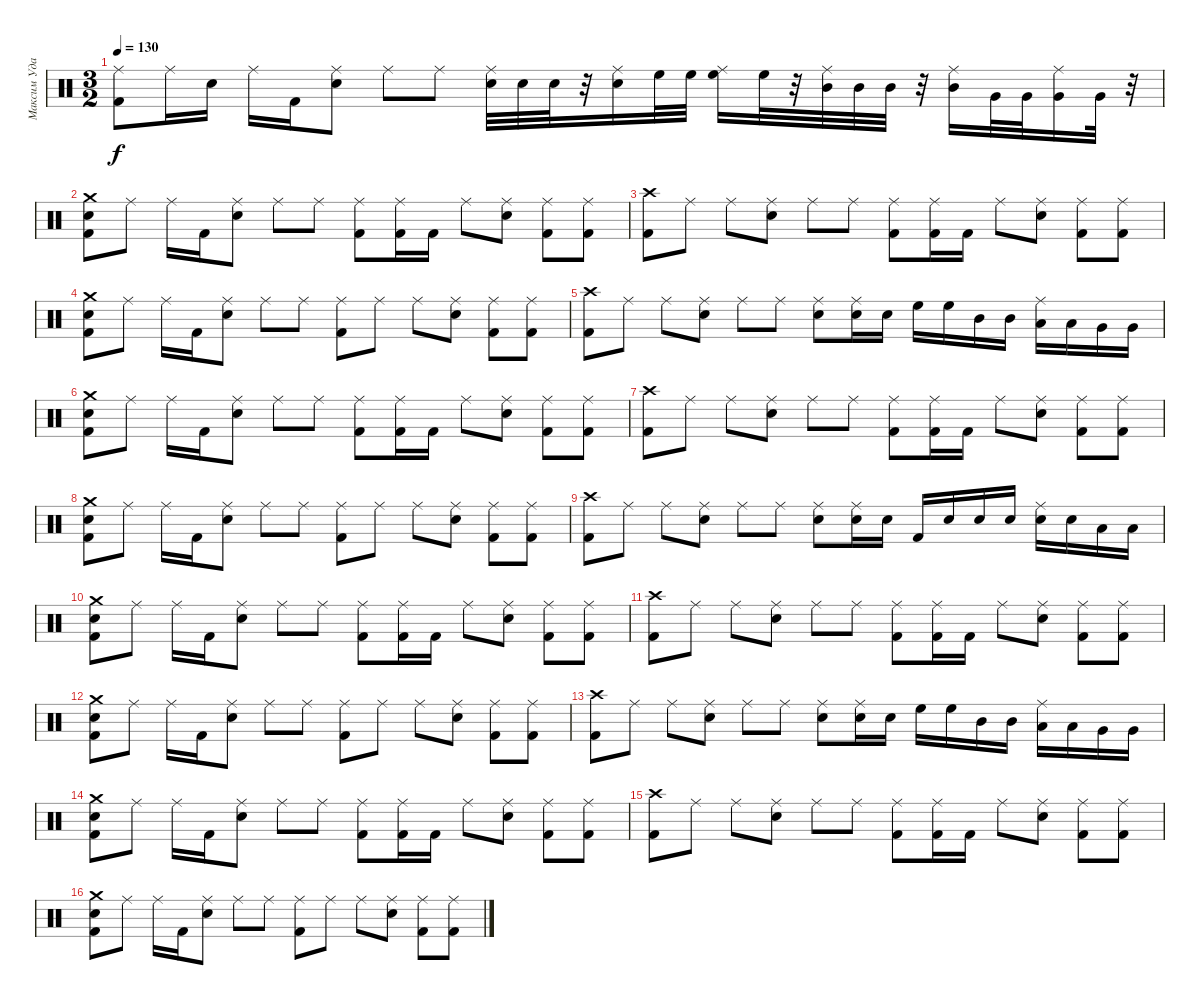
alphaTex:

\track ("Максим Удалов" "Максим Уда") {instrument percussion}
\staff {score}
\articulation defaults
\ts (3 2)
\tempo 130
\clef neutral
\ks c
("Kick (hit) 2" "Ride (middle)").8{dy f} "Ride (middle)".16 "Electric Snare (hit)".16 "Ride (middle)".16 "Kick (hit) 2".16 ("Electric Snare (hit)" "Ride (middle)").8 "Ride (middle)".8 "Ride (middle)".8 ("Electric Snare (hit)" "Ride (middle)").32 "Electric Snare (hit)".32 "Electric Snare (hit)".32 r.32 ("Ride (middle)" "Electric Snare (hit)").16 "High Floor Tom (hit)".32 "High Floor Tom (hit)".32 ("High Floor Tom (hit)" "Ride (middle)").16 "High Floor Tom (hit)".32 r.32 ("Mid Tom (hit)" "Ride (middle)").32 "Mid Tom (hit)".32 "Mid Tom (hit)".32 r.32 ("Ride (middle)" "Mid Tom (hit)").16 "Very Low Tom (hit)".32 "Very Low Tom (hit)".32 ("Ride (middle)" "Very Low Tom (hit)").16 "Very Low Tom (hit)".32 r.32 |
("Kick (hit) 2" "Electric Snare (hit)" "Crash medium (hit)").8 "Ride (middle)".8 "Ride (middle)".16 "Kick (hit) 2".16 ("Electric Snare (hit)" "Ride (middle)").8 "Ride (middle)".8 "Ride (middle)".8 ("Kick (hit) 2" "Ride (middle)").8 ("Ride (middle)" "Kick (hit) 2").16 "Kick (hit) 2".16 "Ride (middle)".8 ("Electric Snare (hit)" "Ride (middle)").8 ("Ride (middle)" "Kick (hit) 2").8 ("Ride (middle)" "Kick (hit) 2").8 |
("Kick (hit) 2" "Crash high (hit)").8 "Ride (middle)".8 "Ride (middle)".8 ("Electric Snare (hit)" "Ride (middle)").8 "Ride (middle)".8 "Ride (middle)".8 ("Kick (hit) 2" "Ride (middle)").8 ("Kick (hit) 2" "Ride (middle)").16 "Kick (hit) 2".16 "Ride (middle)".8 ("Ride (middle)" "Electric Snare (hit)").8 ("Kick (hit) 2" "Ride (middle)").8 ("Kick (hit) 2" "Ride (middle)").8 |
("Electric Snare (hit)" "Crash medium (hit)" "Kick (hit) 2").8 "Ride (middle)".8 "Ride (middle)".16 "Kick (hit) 2".16 ("Ride (middle)" "Electric Snare (hit)").8 "Ride (middle)".8 "Ride (middle)".8 ("Kick (hit) 2" "Ride (middle)").8 "Ride (middle)".8 "Ride (middle)".8 ("Ride (middle)" "Electric Snare (hit)").8 ("Ride (middle)" "Kick (hit) 2").8 ("Ride (middle)" "Kick (hit) 2").8 |
("Kick (hit) 2" "Crash high (hit)").8 "Ride (middle)".8 "Ride (middle)".8 ("Electric Snare (hit)" "Ride (middle)").8 "Ride (middle)".8 "Ride (middle)".8 ("Electric Snare (hit)" "Ride (middle)").8 ("Ride (middle)" "Electric Snare (hit)").16 "Electric Snare (hit)".16 "High Floor Tom (hit)".16 "High Floor Tom (hit)".16 "Mid Tom (hit)".16 "Mid Tom (hit)".16 ("Ride (middle)" "Low Tom (hit)").16 "Low Tom (hit)".16 "Very Low Tom (hit)".16 "Very Low Tom (hit)".16 |
("Crash medium (hit)" "Kick (hit) 2" "Electric Snare (hit)").8 "Ride (middle)".8 "Ride (middle)".16 "Kick (hit) 2".16 ("Ride (middle)" "Electric Snare (hit)").8 "Ride (middle)".8 "Ride (middle)".8 ("Kick (hit) 2" "Ride (middle)").8 ("Ride (middle)" "Kick (hit) 2").16 "Kick (hit) 2".16 "Ride (middle)".8 ("Electric Snare (hit)" "Ride (middle)").8 ("Kick (hit) 2" "Ride (middle)").8 ("Kick (hit) 2" "Ride (middle)").8 |
("Crash high (hit)" "Kick (hit) 2").8 "Ride (middle)".8 "Ride (middle)".8 ("Ride (middle)" "Electric Snare (hit)").8 "Ride (middle)".8 "Ride (middle)".8 ("Kick (hit) 2" "Ride (middle)").8 ("Kick (hit) 2" "Ride (middle)").16 "Kick (hit) 2".16 "Ride (middle)".8 ("Ride (middle)" "Electric Snare (hit)").8 ("Kick (hit) 2" "Ride (middle)").8 ("Kick (hit) 2" "Ride (middle)").8 |
("Kick (hit) 2" "Crash medium (hit)" "Electric Snare (hit)").8 "Ride (middle)".8 "Ride (middle)".16 "Kick (hit) 2".16 ("Electric Snare (hit)" "Ride (middle)").8 "Ride (middle)".8 "Ride (middle)".8 ("Ride (middle)" "Kick (hit) 2").8 "Ride (middle)".8 "Ride (middle)".8 ("Electric Snare (hit)" "Ride (middle)").8 ("Kick (hit) 2" "Ride (middle)").8 ("Kick (hit) 2" "Ride (middle)").8 |
("Kick (hit) 2" "Crash high (hit)").8 "Ride (middle)".8 "Ride (middle)".8 ("Electric Snare (hit)" "Ride (middle)").8 "Ride (middle)".8 "Ride (middle)".8 ("Electric Snare (hit)" "Ride (middle)").8 ("Electric Snare (hit)" "Ride (middle)").16 "Electric Snare (hit)".16 "Kick (hit) 2".16 "Electric Snare (hit)".16 "Electric Snare (hit)".16 "Electric Snare (hit)".16 ("Ride (middle)" "Electric Snare (hit)").16 "Electric Snare (hit)".16 "Low Floor Tom (hit)".16 "Low Floor Tom (hit)".16 |
("Crash medium (hit)" "Kick (hit) 2" "Electric Snare (hit)").8 "Ride (middle)".8 "Ride (middle)".16 "Kick (hit) 2".16 ("Electric Snare (hit)" "Ride (middle)").8 "Ride (middle)".8 "Ride (middle)".8 ("Ride (middle)" "Kick (hit) 2").8 ("Ride (middle)" "Kick (hit) 2").16 "Kick (hit) 2".16 "Ride (middle)".8 ("Electric Snare (hit)" "Ride (middle)").8 ("Kick (hit) 2" "Ride (middle)").8 ("Ride (middle)" "Kick (hit) 2").8 |
("Crash high (hit)" "Kick (hit) 2").8 "Ride (middle)".8 "Ride (middle)".8 ("Ride (middle)" "Electric Snare (hit)").8 "Ride (middle)".8 "Ride (middle)".8 ("Kick (hit) 2" "Ride (middle)").8 ("Ride (middle)" "Kick (hit) 2").16 "Kick (hit) 2".16 "Ride (middle)".8 ("Electric Snare (hit)" "Ride (middle)").8 ("Kick (hit) 2" "Ride (middle)").8 ("Ride (middle)" "Kick (hit) 2").8 |
("Kick (hit) 2" "Crash medium (hit)" "Electric Snare (hit)").8 "Ride (middle)".8 "Ride (middle)".16 "Kick (hit) 2".16 ("Ride (middle)" "Electric Snare (hit)").8 "Ride (middle)".8 "Ride (middle)".8 ("Kick (hit) 2" "Ride (middle)").8 "Ride (middle)".8 "Ride (middle)".8 ("Ride (middle)" "Electric Snare (hit)").8 ("Kick (hit) 2" "Ride (middle)").8 ("Kick (hit) 2" "Ride (middle)").8 |
("Kick (hit) 2" "Crash high (hit)").8 "Ride (middle)".8 "Ride (middle)".8 ("Electric Snare (hit)" "Ride (middle)").8 "Ride (middle)".8 "Ride (middle)".8 ("Electric Snare (hit)" "Ride (middle)").8 ("Ride (middle)" "Electric Snare (hit)").16 "Electric Snare (hit)".16 "High Floor Tom (hit)".16 "High Floor Tom (hit)".16 "Mid Tom (hit)".16 "Mid Tom (hit)".16 ("Ride (middle)" "Low Tom (hit)").16 "Low Tom (hit)".16 "Very Low Tom (hit)".16 "Very Low Tom (hit)".16 |
("Electric Snare (hit)" "Crash medium (hit)" "Kick (hit) 2").8 "Ride (middle)".8 "Ride (middle)".16 "Kick (hit) 2".16 ("Electric Snare (hit)" "Ride (middle)").8 "Ride (middle)".8 "Ride (middle)".8 ("Kick (hit) 2" "Ride (middle)").8 ("Ride (middle)" "Kick (hit) 2").16 "Kick (hit) 2".16 "Ride (middle)".8 ("Electric Snare (hit)" "Ride (middle)").8 ("Ride (middle)" "Kick (hit) 2").8 ("Kick (hit) 2" "Ride (middle)").8 |
("Crash high (hit)" "Kick (hit) 2").8 "Ride (middle)".8 "Ride (middle)".8 ("Electric Snare (hit)" "Ride (middle)").8 "Ride (middle)".8 "Ride (middle)".8 ("Ride (middle)" "Kick (hit) 2").8 ("Ride (middle)" "Kick (hit) 2").16 "Kick (hit) 2".16 "Ride (middle)".8 ("Electric Snare (hit)" "Ride (middle)").8 ("Kick (hit) 2" "Ride (middle)").8 ("Ride (middle)" "Kick (hit) 2").8 |
("Electric Snare (hit)" "Crash medium (hit)" "Kick (hit) 2").8 "Ride (middle)".8 "Ride (middle)".16 "Kick (hit) 2".16 ("Electric Snare (hit)" "Ride (middle)").8 "Ride (middle)".8 "Ride (middle)".8 ("Kick (hit) 2" "Ride (middle)").8 "Ride (middle)".8 "Ride (middle)".8 ("Ride (middle)" "Electric Snare (hit)").8 ("Ride (middle)" "Kick (hit) 2").8 ("Kick (hit) 2" "Ride (middle)").8
